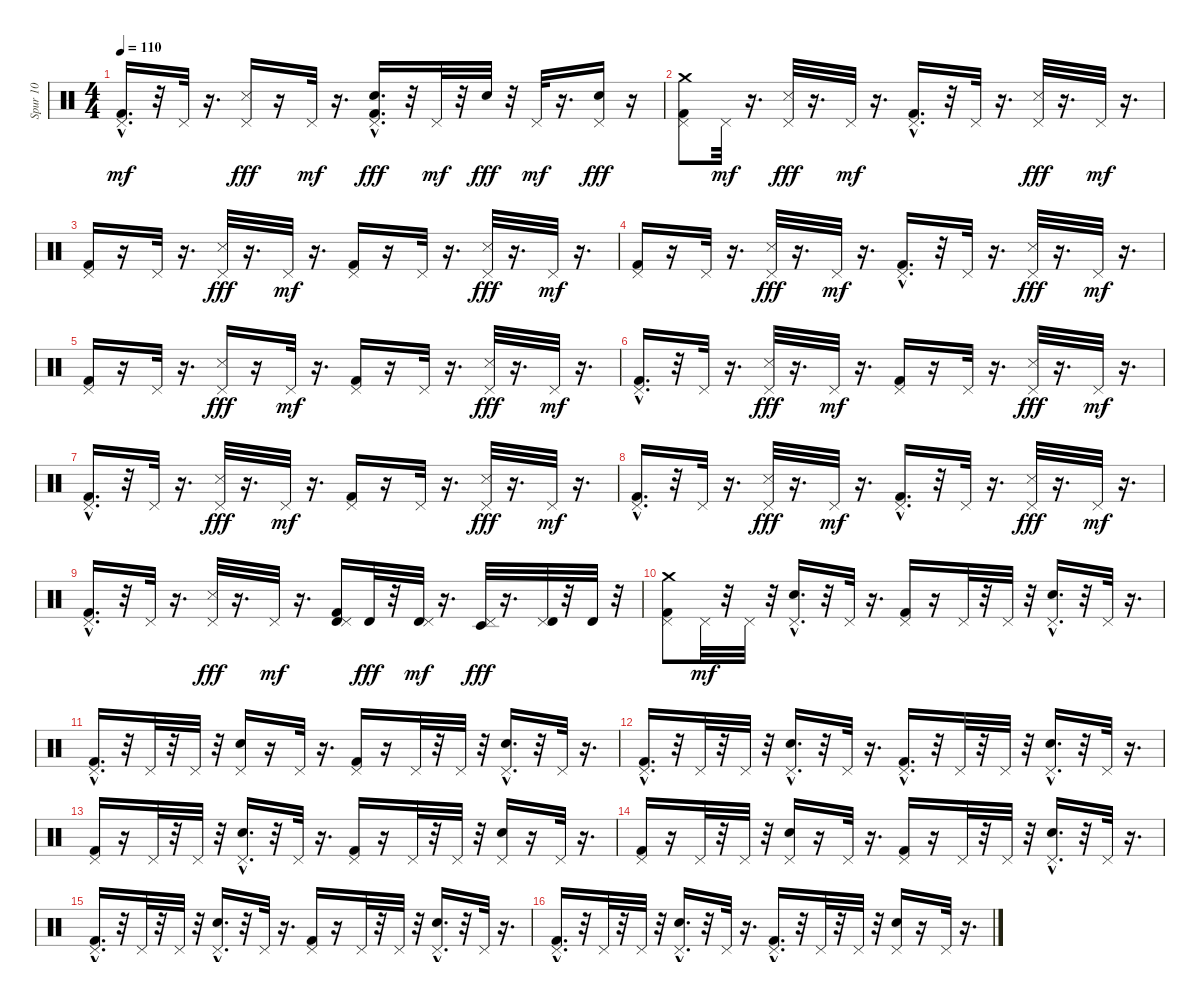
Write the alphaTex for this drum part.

\track ("Spur 10" "Spur 10") {instrument percussion}
\staff {score}
\articulation defaults
\ts (4 4)
\tempo 110
\clef neutral
\ks c
("Kick (hit) 2"{hac} "Pedal Hi-Hat (hit)").16{d dy mf} r.32 "Pedal Hi-Hat (hit)".32 r.16{d} ("Pedal Hi-Hat (hit)" "Snare (side stick) 3").16{dy fff} r.16 "Pedal Hi-Hat (hit)".32{dy mf} r.16{d} ("Kick (hit) 2"{hac} "Pedal Hi-Hat (hit)" "Electric Snare (hit)").16{d dy fff} r.32 "Pedal Hi-Hat (hit)".32{dy mf} r.32 "Electric Snare (hit)".32{dy fff} r.32 "Pedal Hi-Hat (hit)".32{dy mf} r.16{d} ("Pedal Hi-Hat (hit)" "Electric Snare (hit)").16{dy fff} r.16 |
("Kick (hit) 2" "Pedal Hi-Hat (hit)" "Crash medium (hit)").8 "Pedal Hi-Hat (hit)".32{dy mf} r.16{d} ("Pedal Hi-Hat (hit)" "Snare (side stick) 3").32{dy fff} r.16{d} "Pedal Hi-Hat (hit)".32{dy mf} r.16{d} ("Kick (hit) 2"{hac} "Pedal Hi-Hat (hit)").16{d} r.32 "Pedal Hi-Hat (hit)".32 r.16{d} ("Pedal Hi-Hat (hit)" "Snare (side stick) 3").32{dy fff} r.16{d} "Pedal Hi-Hat (hit)".32{dy mf} r.16{d} |
("Kick (hit) 2" "Pedal Hi-Hat (hit)").16 r.16 "Pedal Hi-Hat (hit)".32 r.16{d} ("Pedal Hi-Hat (hit)" "Snare (side stick) 3").32{dy fff} r.16{d} "Pedal Hi-Hat (hit)".32{dy mf} r.16{d} ("Kick (hit) 2" "Pedal Hi-Hat (hit)").16 r.16 "Pedal Hi-Hat (hit)".32 r.16{d} ("Pedal Hi-Hat (hit)" "Snare (side stick) 3").32{dy fff} r.16{d} "Pedal Hi-Hat (hit)".32{dy mf} r.16{d} |
("Kick (hit) 2" "Pedal Hi-Hat (hit)").16 r.16 "Pedal Hi-Hat (hit)".32 r.16{d} ("Pedal Hi-Hat (hit)" "Snare (side stick) 3").32{dy fff} r.16{d} "Pedal Hi-Hat (hit)".32{dy mf} r.16{d} ("Kick (hit) 2"{hac} "Pedal Hi-Hat (hit)").16{d} r.32 "Pedal Hi-Hat (hit)".32 r.16{d} ("Pedal Hi-Hat (hit)" "Snare (side stick) 3").32{dy fff} r.16{d} "Pedal Hi-Hat (hit)".32{dy mf} r.16{d} |
("Kick (hit) 2" "Pedal Hi-Hat (hit)").16 r.16 "Pedal Hi-Hat (hit)".32 r.16{d} ("Pedal Hi-Hat (hit)" "Snare (side stick) 3").16{dy fff} r.16 "Pedal Hi-Hat (hit)".32{dy mf} r.16{d} ("Kick (hit) 2" "Pedal Hi-Hat (hit)").16 r.16 "Pedal Hi-Hat (hit)".32 r.16{d} ("Pedal Hi-Hat (hit)" "Snare (side stick) 3").32{dy fff} r.16{d} "Pedal Hi-Hat (hit)".32{dy mf} r.16{d} |
("Kick (hit) 2"{hac} "Pedal Hi-Hat (hit)").16{d} r.32 "Pedal Hi-Hat (hit)".32 r.16{d} ("Pedal Hi-Hat (hit)" "Snare (side stick) 3").32{dy fff} r.16{d} "Pedal Hi-Hat (hit)".32{dy mf} r.16{d} ("Kick (hit) 2" "Pedal Hi-Hat (hit)").16 r.16 "Pedal Hi-Hat (hit)".32 r.16{d} ("Pedal Hi-Hat (hit)" "Snare (side stick) 3").32{dy fff} r.16{d} "Pedal Hi-Hat (hit)".32{dy mf} r.16{d} |
("Kick (hit) 2"{hac} "Pedal Hi-Hat (hit)").16{d} r.32 "Pedal Hi-Hat (hit)".32 r.16{d} ("Pedal Hi-Hat (hit)" "Snare (side stick) 3").32{dy fff} r.16{d} "Pedal Hi-Hat (hit)".32{dy mf} r.16{d} ("Kick (hit) 2" "Pedal Hi-Hat (hit)").16 r.16 "Pedal Hi-Hat (hit)".32 r.16{d} ("Pedal Hi-Hat (hit)" "Snare (side stick) 3").32{dy fff} r.16{d} "Pedal Hi-Hat (hit)".32{dy mf} r.16{d} |
("Kick (hit) 2"{hac} "Pedal Hi-Hat (hit)").16{d} r.32 "Pedal Hi-Hat (hit)".32 r.16{d} ("Pedal Hi-Hat (hit)" "Snare (side stick) 3").32{dy fff} r.16{d} "Pedal Hi-Hat (hit)".32{dy mf} r.16{d} ("Kick (hit) 2"{hac} "Pedal Hi-Hat (hit)").16{d} r.32 "Pedal Hi-Hat (hit)".32 r.16{d} ("Pedal Hi-Hat (hit)" "Snare (side stick) 3").32{dy fff} r.16{d} "Pedal Hi-Hat (hit)".32{dy mf} r.16{d} |
("Kick (hit) 2"{hac} "Pedal Hi-Hat (hit)").16{d} r.32 "Pedal Hi-Hat (hit)".32 r.16{d} ("Pedal Hi-Hat (hit)" "Snare (side stick) 3").32{dy fff} r.16{d} "Pedal Hi-Hat (hit)".32{dy mf} r.16{d} ("Kick (hit) 2" "Timbale high (hit)" "Pedal Hi-Hat (hit)").16 "Timbale high (hit)".32{dy fff} r.32 ("Timbale high (hit)" "Pedal Hi-Hat (hit)").32{dy mf} r.16{d} ("Pedal Hi-Hat (hit)" "Timbale low (hit)").32{dy fff} r.16{d} ("Pedal Hi-Hat (hit)" "Timbale high (hit)").32 r.32 "Timbale high (hit)".32 r.32 |
("Kick (hit) 2" "Pedal Hi-Hat (hit)" "Crash medium (hit)").8 "Pedal Hi-Hat (hit)".32{dy mf} r.32 "Pedal Hi-Hat (hit)".32 r.32 ("Electric Snare (hit)"{hac} "Pedal Hi-Hat (hit)").16{d} r.32 "Pedal Hi-Hat (hit)".32 r.16{d} ("Kick (hit) 2" "Pedal Hi-Hat (hit)").16 r.16 "Pedal Hi-Hat (hit)".32 r.32 "Pedal Hi-Hat (hit)".32 r.32 ("Electric Snare (hit)"{hac} "Pedal Hi-Hat (hit)").16{d} r.32 "Pedal Hi-Hat (hit)".32 r.16{d} |
("Kick (hit) 2"{hac} "Pedal Hi-Hat (hit)").16{d} r.32 "Pedal Hi-Hat (hit)".32 r.32 "Pedal Hi-Hat (hit)".32 r.32 ("Electric Snare (hit)" "Pedal Hi-Hat (hit)").16 r.16 "Pedal Hi-Hat (hit)".32 r.16{d} ("Kick (hit) 2" "Pedal Hi-Hat (hit)").16 r.16 "Pedal Hi-Hat (hit)".32 r.32 "Pedal Hi-Hat (hit)".32 r.32 ("Electric Snare (hit)"{hac} "Pedal Hi-Hat (hit)").16{d} r.32 "Pedal Hi-Hat (hit)".32 r.16{d} |
("Kick (hit) 2"{hac} "Pedal Hi-Hat (hit)").16{d} r.32 "Pedal Hi-Hat (hit)".32 r.32 "Pedal Hi-Hat (hit)".32 r.32 ("Electric Snare (hit)"{hac} "Pedal Hi-Hat (hit)").16{d} r.32 "Pedal Hi-Hat (hit)".32 r.16{d} ("Kick (hit) 2"{hac} "Pedal Hi-Hat (hit)").16{d} r.32 "Pedal Hi-Hat (hit)".32 r.32 "Pedal Hi-Hat (hit)".32 r.32 ("Electric Snare (hit)"{hac} "Pedal Hi-Hat (hit)").16{d} r.32 "Pedal Hi-Hat (hit)".32 r.16{d} |
("Kick (hit) 2" "Pedal Hi-Hat (hit)").16 r.16 "Pedal Hi-Hat (hit)".32 r.32 "Pedal Hi-Hat (hit)".32 r.32 ("Electric Snare (hit)"{hac} "Pedal Hi-Hat (hit)").16{d} r.32 "Pedal Hi-Hat (hit)".32 r.16{d} ("Kick (hit) 2" "Pedal Hi-Hat (hit)").16 r.16 "Pedal Hi-Hat (hit)".32 r.32 "Pedal Hi-Hat (hit)".32 r.32 ("Electric Snare (hit)" "Pedal Hi-Hat (hit)").16 r.16 "Pedal Hi-Hat (hit)".32 r.16{d} |
("Kick (hit) 2" "Pedal Hi-Hat (hit)").16 r.16 "Pedal Hi-Hat (hit)".32 r.32 "Pedal Hi-Hat (hit)".32 r.32 ("Electric Snare (hit)" "Pedal Hi-Hat (hit)").16 r.16 "Pedal Hi-Hat (hit)".32 r.16{d} ("Kick (hit) 2" "Pedal Hi-Hat (hit)").16 r.16 "Pedal Hi-Hat (hit)".32 r.32 "Pedal Hi-Hat (hit)".32 r.32 ("Electric Snare (hit)"{hac} "Pedal Hi-Hat (hit)").16{d} r.32 "Pedal Hi-Hat (hit)".32 r.16{d} |
("Kick (hit) 2"{hac} "Pedal Hi-Hat (hit)").16{d} r.32 "Pedal Hi-Hat (hit)".32 r.32 "Pedal Hi-Hat (hit)".32 r.32 ("Electric Snare (hit)"{hac} "Pedal Hi-Hat (hit)").16{d} r.32 "Pedal Hi-Hat (hit)".32 r.16{d} ("Kick (hit) 2" "Pedal Hi-Hat (hit)").16 r.16 "Pedal Hi-Hat (hit)".32 r.32 "Pedal Hi-Hat (hit)".32 r.32 ("Electric Snare (hit)"{hac} "Pedal Hi-Hat (hit)").16{d} r.32 "Pedal Hi-Hat (hit)".32 r.16{d} |
("Kick (hit) 2"{hac} "Pedal Hi-Hat (hit)").16{d} r.32 "Pedal Hi-Hat (hit)".32 r.32 "Pedal Hi-Hat (hit)".32 r.32 ("Electric Snare (hit)"{hac} "Pedal Hi-Hat (hit)").16{d} r.32 "Pedal Hi-Hat (hit)".32 r.16{d} ("Kick (hit) 2"{hac} "Pedal Hi-Hat (hit)").16{d} r.32 "Pedal Hi-Hat (hit)".32 r.32 "Pedal Hi-Hat (hit)".32 r.32 ("Electric Snare (hit)" "Pedal Hi-Hat (hit)").16 r.16 "Pedal Hi-Hat (hit)".32 r.16{d}
